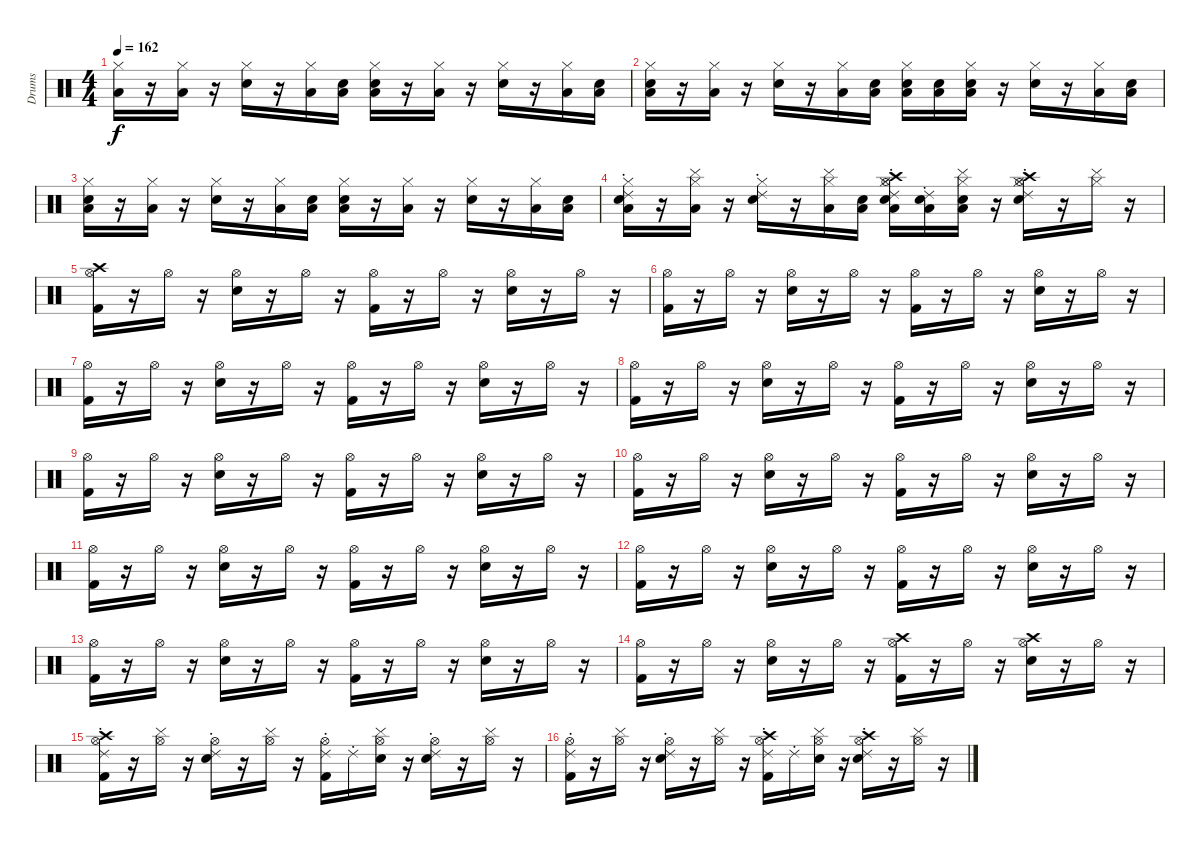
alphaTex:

\track ("Drums" "Drums") {instrument percussion}
\staff {score}
\articulation defaults
\ts (4 4)
\tempo 162
\clef neutral
\ks c
("Low Floor Tom (hit)" "Hi-Hat (closed)").16{dy f} r.16 ("Low Floor Tom (hit)" "Hi-Hat (closed)").16 r.16 ("Electric Snare (hit)" "Hi-Hat (closed)").16 r.16 ("Low Floor Tom (hit)" "Hi-Hat (closed)").16 ("Snare (hit)" "Low Floor Tom (hit)").16 ("Snare (hit)" "Low Floor Tom (hit)" "Hi-Hat (closed)").16 r.16 ("Low Floor Tom (hit)" "Hi-Hat (closed)").16 r.16 ("Electric Snare (hit)" "Hi-Hat (closed)").16 r.16 ("Low Floor Tom (hit)" "Hi-Hat (closed)").16 ("Snare (hit)" "Low Floor Tom (hit)").16 |
("Snare (hit)" "Low Floor Tom (hit)" "Hi-Hat (closed)").16 r.16 ("Low Floor Tom (hit)" "Hi-Hat (closed)").16 r.16 ("Electric Snare (hit)" "Hi-Hat (closed)").16 r.16 ("Low Floor Tom (hit)" "Hi-Hat (closed)").16 ("Snare (hit)" "Low Floor Tom (hit)").16 ("Snare (hit)" "Low Floor Tom (hit)" "Hi-Hat (closed)").16 ("Snare (hit)" "Low Floor Tom (hit)").16 ("Snare (hit)" "Low Floor Tom (hit)" "Hi-Hat (closed)").16 r.16 ("Electric Snare (hit)" "Hi-Hat (closed)").16 r.16 ("Low Floor Tom (hit)" "Hi-Hat (closed)").16 ("Snare (hit)" "Low Floor Tom (hit)").16 |
("Snare (hit)" "Low Floor Tom (hit)" "Hi-Hat (closed)").16 r.16 ("Low Floor Tom (hit)" "Hi-Hat (closed)").16 r.16 ("Electric Snare (hit)" "Hi-Hat (closed)").16 r.16 ("Low Floor Tom (hit)" "Hi-Hat (closed)").16 ("Snare (hit)" "Low Floor Tom (hit)").16 ("Snare (hit)" "Low Floor Tom (hit)" "Hi-Hat (closed)").16 r.16 ("Low Floor Tom (hit)" "Hi-Hat (closed)").16 r.16 ("Electric Snare (hit)" "Hi-Hat (closed)").16 r.16 ("Low Floor Tom (hit)" "Hi-Hat (closed)").16 ("Snare (hit)" "Low Floor Tom (hit)").16 |
("Snare (hit)" "Low Floor Tom (hit)" "Hi-Hat (closed)" "Ride (choke) 2").16 r.16 ("Low Floor Tom (hit)" "Hi-Hat (closed)" "Cymbal (hit)").16 r.16 ("Electric Snare (hit)" "Hi-Hat (closed)" "Ride (choke) 2").16 r.16 ("Low Floor Tom (hit)" "Hi-Hat (closed)" "Cymbal (hit)").16 ("Snare (hit)" "Low Floor Tom (hit)").16 ("Snare (hit)" "Low Floor Tom (hit)" "Hi-Hat (closed)" "Hi-Hat (open)" "Ride (choke) 2" "Crash high (hit)").16 ("Snare (hit)" "Low Floor Tom (hit)" "Ride (choke) 2").16 ("Snare (hit)" "Low Floor Tom (hit)" "Hi-Hat (closed)" "Cymbal (hit)").16 r.16 ("Electric Snare (hit)" "Hi-Hat (closed)" "Hi-Hat (open)" "Ride (choke) 2" "Crash high (hit)").16 r.16 ("Hi-Hat (closed)" "Cymbal (hit)").16 r.16 |
("Kick (hit) 2" "Hi-Hat (open)" "Crash high (hit)").16 r.16 "Hi-Hat (open)".16 r.16 ("Electric Snare (hit)" "Hi-Hat (open)").16 r.16 "Hi-Hat (open)".16 r.16 ("Hi-Hat (open)" "Kick (hit) 2").16 r.16 "Hi-Hat (open)".16 r.16 ("Hi-Hat (open)" "Electric Snare (hit)").16 r.16 "Hi-Hat (open)".16 r.16 |
("Kick (hit) 2" "Hi-Hat (open)").16 r.16 "Hi-Hat (open)".16 r.16 ("Electric Snare (hit)" "Hi-Hat (open)").16 r.16 "Hi-Hat (open)".16 r.16 ("Hi-Hat (open)" "Kick (hit) 2").16 r.16 "Hi-Hat (open)".16 r.16 ("Hi-Hat (open)" "Electric Snare (hit)").16 r.16 "Hi-Hat (open)".16 r.16 |
("Kick (hit) 2" "Hi-Hat (open)").16 r.16 "Hi-Hat (open)".16 r.16 ("Electric Snare (hit)" "Hi-Hat (open)").16 r.16 "Hi-Hat (open)".16 r.16 ("Hi-Hat (open)" "Kick (hit) 2").16 r.16 "Hi-Hat (open)".16 r.16 ("Hi-Hat (open)" "Electric Snare (hit)").16 r.16 "Hi-Hat (open)".16 r.16 |
("Kick (hit) 2" "Hi-Hat (open)").16 r.16 "Hi-Hat (open)".16 r.16 ("Electric Snare (hit)" "Hi-Hat (open)").16 r.16 "Hi-Hat (open)".16 r.16 ("Hi-Hat (open)" "Kick (hit) 2").16 r.16 "Hi-Hat (open)".16 r.16 ("Hi-Hat (open)" "Electric Snare (hit)").16 r.16 "Hi-Hat (open)".16 r.16 |
("Kick (hit) 2" "Hi-Hat (open)").16 r.16 "Hi-Hat (open)".16 r.16 ("Electric Snare (hit)" "Hi-Hat (open)").16 r.16 "Hi-Hat (open)".16 r.16 ("Hi-Hat (open)" "Kick (hit) 2").16 r.16 "Hi-Hat (open)".16 r.16 ("Hi-Hat (open)" "Electric Snare (hit)").16 r.16 "Hi-Hat (open)".16 r.16 |
("Kick (hit) 2" "Hi-Hat (open)").16 r.16 "Hi-Hat (open)".16 r.16 ("Electric Snare (hit)" "Hi-Hat (open)").16 r.16 "Hi-Hat (open)".16 r.16 ("Hi-Hat (open)" "Kick (hit) 2").16 r.16 "Hi-Hat (open)".16 r.16 ("Hi-Hat (open)" "Electric Snare (hit)").16 r.16 "Hi-Hat (open)".16 r.16 |
("Kick (hit) 2" "Hi-Hat (open)").16 r.16 "Hi-Hat (open)".16 r.16 ("Electric Snare (hit)" "Hi-Hat (open)").16 r.16 "Hi-Hat (open)".16 r.16 ("Hi-Hat (open)" "Kick (hit) 2").16 r.16 "Hi-Hat (open)".16 r.16 ("Hi-Hat (open)" "Electric Snare (hit)").16 r.16 "Hi-Hat (open)".16 r.16 |
("Kick (hit) 2" "Hi-Hat (open)").16 r.16 "Hi-Hat (open)".16 r.16 ("Electric Snare (hit)" "Hi-Hat (open)").16 r.16 "Hi-Hat (open)".16 r.16 ("Hi-Hat (open)" "Kick (hit) 2").16 r.16 "Hi-Hat (open)".16 r.16 ("Hi-Hat (open)" "Electric Snare (hit)").16 r.16 "Hi-Hat (open)".16 r.16 |
("Kick (hit) 2" "Hi-Hat (open)").16 r.16 "Hi-Hat (open)".16 r.16 ("Electric Snare (hit)" "Hi-Hat (open)").16 r.16 "Hi-Hat (open)".16 r.16 ("Hi-Hat (open)" "Kick (hit) 2").16 r.16 "Hi-Hat (open)".16 r.16 ("Hi-Hat (open)" "Electric Snare (hit)").16 r.16 "Hi-Hat (open)".16 r.16 |
("Kick (hit) 2" "Hi-Hat (open)").16 r.16 "Hi-Hat (open)".16 r.16 ("Electric Snare (hit)" "Hi-Hat (open)").16 r.16 "Hi-Hat (open)".16 r.16 ("Hi-Hat (open)" "Kick (hit) 2" "Crash high (hit)").16 r.16 "Hi-Hat (open)".16 r.16 ("Hi-Hat (open)" "Electric Snare (hit)" "Crash high (hit)").16 r.16 "Hi-Hat (open)".16 r.16 |
("Kick (hit) 2" "Hi-Hat (open)" "Ride (choke) 2" "Crash high (hit)").16 r.16 ("Hi-Hat (open)" "Cymbal (hit)").16 r.16 ("Electric Snare (hit)" "Hi-Hat (open)" "Ride (choke) 2").16 r.16 ("Hi-Hat (open)" "Cymbal (hit)").16 r.16 ("Hi-Hat (open)" "Kick (hit) 2" "Ride (choke) 2").16 "Ride (choke) 2".16 ("Snare (hit)" "Hi-Hat (open)" "Cymbal (hit)").16 r.16 ("Hi-Hat (open)" "Electric Snare (hit)" "Ride (choke) 2").16 r.16 ("Hi-Hat (open)" "Cymbal (hit)").16 r.16 |
("Kick (hit) 2" "Hi-Hat (open)" "Ride (choke) 2").16 r.16 ("Hi-Hat (open)" "Cymbal (hit)").16 r.16 ("Electric Snare (hit)" "Hi-Hat (open)" "Ride (choke) 2").16 r.16 ("Hi-Hat (open)" "Cymbal (hit)").16 r.16 ("Hi-Hat (open)" "Kick (hit) 2" "Ride (choke) 2" "Crash high (hit)").16 "Ride (choke) 2".16 ("Snare (hit)" "Hi-Hat (open)" "Cymbal (hit)").16 r.16 ("Hi-Hat (open)" "Electric Snare (hit)" "Ride (choke) 2" "Crash high (hit)").16 r.16 ("Hi-Hat (open)" "Cymbal (hit)").16 r.16
